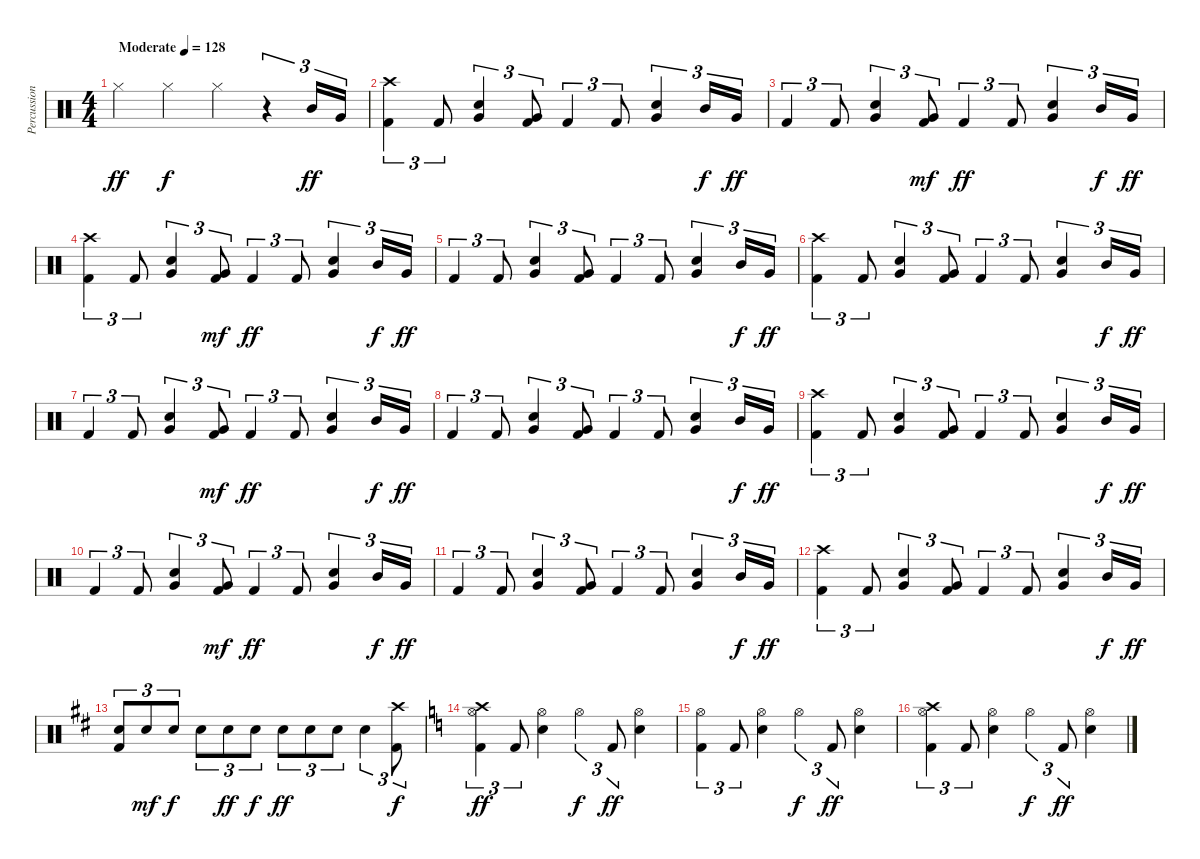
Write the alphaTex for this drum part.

\track ("Percussion" "Percussion") {instrument percussion}
\staff {score}
\articulation defaults
\ts (4 4)
\tempo (128 "Moderate")
\clef neutral
\ks c "Hi-Hat (closed)".4{dy ff} "Hi-Hat (closed)".4{dy f} "Hi-Hat (closed)".4
r.4{tu (3 2)} "Mid Tom (hit)".16{tu (3 2) dy ff} "Very Low Tom (hit)".16{tu (3 2)} |
("Crash high (hit)" "Kick (hit) 2").4{tu (3 2)} "Kick (hit) 2".8{tu (3 2)} ("Snare (hit) 2" "Very Low Tom (hit)").4{tu (3 2)} ("Kick (hit) 2" "Very Low Tom (hit)").8{tu (3 2)} "Kick (hit) 2".4{tu (3 2)} "Kick (hit) 2".8{tu (3 2)} ("Snare (hit) 2" "Very Low Tom (hit)").4{tu (3 2)} "Mid Tom (hit)".16{tu (3 2) dy f} "Very Low Tom (hit)".16{tu (3 2) dy ff} |
"Kick (hit) 2".4{tu (3 2)} "Kick (hit) 2".8{tu (3 2)} ("Very Low Tom (hit)" "Snare (hit) 2").4{tu (3 2)} ("Kick (hit) 2" "Very Low Tom (hit)").8{tu (3 2) dy mf} "Kick (hit) 2".4{tu (3 2) dy ff} "Kick (hit) 2".8{tu (3 2)} ("Very Low Tom (hit)" "Snare (hit) 2").4{tu (3 2)} "Mid Tom (hit)".16{tu (3 2) dy f} "Very Low Tom (hit)".16{tu (3 2) dy ff} |
("Crash high (hit)" "Kick (hit) 2").4{tu (3 2)} "Kick (hit) 2".8{tu (3 2)} ("Snare (hit) 2" "Very Low Tom (hit)").4{tu (3 2)} ("Kick (hit) 2" "Very Low Tom (hit)").8{tu (3 2) dy mf} "Kick (hit) 2".4{tu (3 2) dy ff} "Kick (hit) 2".8{tu (3 2)} ("Snare (hit) 2" "Very Low Tom (hit)").4{tu (3 2)} "Mid Tom (hit)".16{tu (3 2) dy f} "Very Low Tom (hit)".16{tu (3 2) dy ff} |
"Kick (hit) 2".4{tu (3 2)} "Kick (hit) 2".8{tu (3 2)} ("Very Low Tom (hit)" "Snare (hit) 2").4{tu (3 2)} ("Kick (hit) 2" "Very Low Tom (hit)").8{tu (3 2)} "Kick (hit) 2".4{tu (3 2)} "Kick (hit) 2".8{tu (3 2)} ("Snare (hit) 2" "Very Low Tom (hit)").4{tu (3 2)} "Mid Tom (hit)".16{tu (3 2) dy f} "Very Low Tom (hit)".16{tu (3 2) dy ff} |
("Crash high (hit)" "Kick (hit) 2").4{tu (3 2)} "Kick (hit) 2".8{tu (3 2)} ("Snare (hit) 2" "Very Low Tom (hit)").4{tu (3 2)} ("Kick (hit) 2" "Very Low Tom (hit)").8{tu (3 2)} "Kick (hit) 2".4{tu (3 2)} "Kick (hit) 2".8{tu (3 2)} ("Snare (hit) 2" "Very Low Tom (hit)").4{tu (3 2)} "Mid Tom (hit)".16{tu (3 2) dy f} "Very Low Tom (hit)".16{tu (3 2) dy ff} |
"Kick (hit) 2".4{tu (3 2)} "Kick (hit) 2".8{tu (3 2)} ("Very Low Tom (hit)" "Snare (hit) 2").4{tu (3 2)} ("Kick (hit) 2" "Very Low Tom (hit)").8{tu (3 2) dy mf} "Kick (hit) 2".4{tu (3 2) dy ff} "Kick (hit) 2".8{tu (3 2)} ("Very Low Tom (hit)" "Snare (hit) 2").4{tu (3 2)} "Mid Tom (hit)".16{tu (3 2) dy f} "Very Low Tom (hit)".16{tu (3 2) dy ff} |
"Kick (hit) 2".4{tu (3 2)} "Kick (hit) 2".8{tu (3 2)} ("Very Low Tom (hit)" "Snare (hit) 2").4{tu (3 2)} ("Kick (hit) 2" "Very Low Tom (hit)").8{tu (3 2)} "Kick (hit) 2".4{tu (3 2)} "Kick (hit) 2".8{tu (3 2)} ("Snare (hit) 2" "Very Low Tom (hit)").4{tu (3 2)} "Mid Tom (hit)".16{tu (3 2) dy f} "Very Low Tom (hit)".16{tu (3 2) dy ff} |
("Crash high (hit)" "Kick (hit) 2").4{tu (3 2)} "Kick (hit) 2".8{tu (3 2)} ("Snare (hit) 2" "Very Low Tom (hit)").4{tu (3 2)} ("Kick (hit) 2" "Very Low Tom (hit)").8{tu (3 2)} "Kick (hit) 2".4{tu (3 2)} "Kick (hit) 2".8{tu (3 2)} ("Snare (hit) 2" "Very Low Tom (hit)").4{tu (3 2)} "Mid Tom (hit)".16{tu (3 2) dy f} "Very Low Tom (hit)".16{tu (3 2) dy ff} |
"Kick (hit) 2".4{tu (3 2)} "Kick (hit) 2".8{tu (3 2)} ("Very Low Tom (hit)" "Snare (hit) 2").4{tu (3 2)} ("Kick (hit) 2" "Very Low Tom (hit)").8{tu (3 2) dy mf} "Kick (hit) 2".4{tu (3 2) dy ff} "Kick (hit) 2".8{tu (3 2)} ("Very Low Tom (hit)" "Snare (hit) 2").4{tu (3 2)} "Mid Tom (hit)".16{tu (3 2) dy f} "Very Low Tom (hit)".16{tu (3 2) dy ff} |
"Kick (hit) 2".4{tu (3 2)} "Kick (hit) 2".8{tu (3 2)} ("Very Low Tom (hit)" "Snare (hit) 2").4{tu (3 2)} ("Kick (hit) 2" "Very Low Tom (hit)").8{tu (3 2)} "Kick (hit) 2".4{tu (3 2)} "Kick (hit) 2".8{tu (3 2)} ("Snare (hit) 2" "Very Low Tom (hit)").4{tu (3 2)} "Mid Tom (hit)".16{tu (3 2) dy f} "Very Low Tom (hit)".16{tu (3 2) dy ff} |
("Crash high (hit)" "Kick (hit) 2").4{tu (3 2)} "Kick (hit) 2".8{tu (3 2)} ("Snare (hit) 2" "Very Low Tom (hit)").4{tu (3 2)} ("Kick (hit) 2" "Very Low Tom (hit)").8{tu (3 2)} "Kick (hit) 2".4{tu (3 2)} "Kick (hit) 2".8{tu (3 2)} ("Snare (hit) 2" "Very Low Tom (hit)").4{tu (3 2)} "Mid Tom (hit)".16{tu (3 2) dy f} "Very Low Tom (hit)".16{tu (3 2) dy ff} |
\ks d
("Snare (hit) 2" "Kick (hit) 2").8{tu (3 2)} "Snare (hit) 2".8{tu (3 2) dy mf} "Snare (hit) 2".8{tu (3 2) dy f} "Snare (hit) 2".8{tu (3 2)} "Snare (hit) 2".8{tu (3 2) dy ff} "Snare (hit) 2".8{tu (3 2) dy f} "Snare (hit) 2".8{tu (3 2) dy ff} "Snare (hit) 2".8{tu (3 2)} "Snare (hit) 2".8{tu (3 2)} "Snare (hit) 2".4{tu (3 2)} ("Crash high (hit)" "Kick (hit) 2").8{tu (3 2) dy f} |
\ks c
("Kick (hit) 2" "Hi-Hat (open)" "Crash high (hit)").4{tu (3 2) dy ff} "Kick (hit) 2".8{tu (3 2)} ("Snare (hit) 2" "Hi-Hat (open)").4 "Hi-Hat (open)".4{tu (3 2) dy f} "Kick (hit) 2".8{tu (3 2) dy ff} ("Snare (hit) 2" "Hi-Hat (open)").4 |
("Hi-Hat (open)" "Kick (hit) 2").4{tu (3 2)} "Kick (hit) 2".8{tu (3 2)} ("Hi-Hat (open)" "Snare (hit) 2").4 "Hi-Hat (open)".4{tu (3 2) dy f} "Kick (hit) 2".8{tu (3 2) dy ff} ("Snare (hit) 2" "Hi-Hat (open)").4 |
("Hi-Hat (open)" "Kick (hit) 2" "Crash high (hit)").4{tu (3 2)} "Kick (hit) 2".8{tu (3 2)} ("Snare (hit) 2" "Hi-Hat (open)").4 "Hi-Hat (open)".4{tu (3 2) dy f} "Kick (hit) 2".8{tu (3 2) dy ff} ("Snare (hit) 2" "Hi-Hat (open)").4
